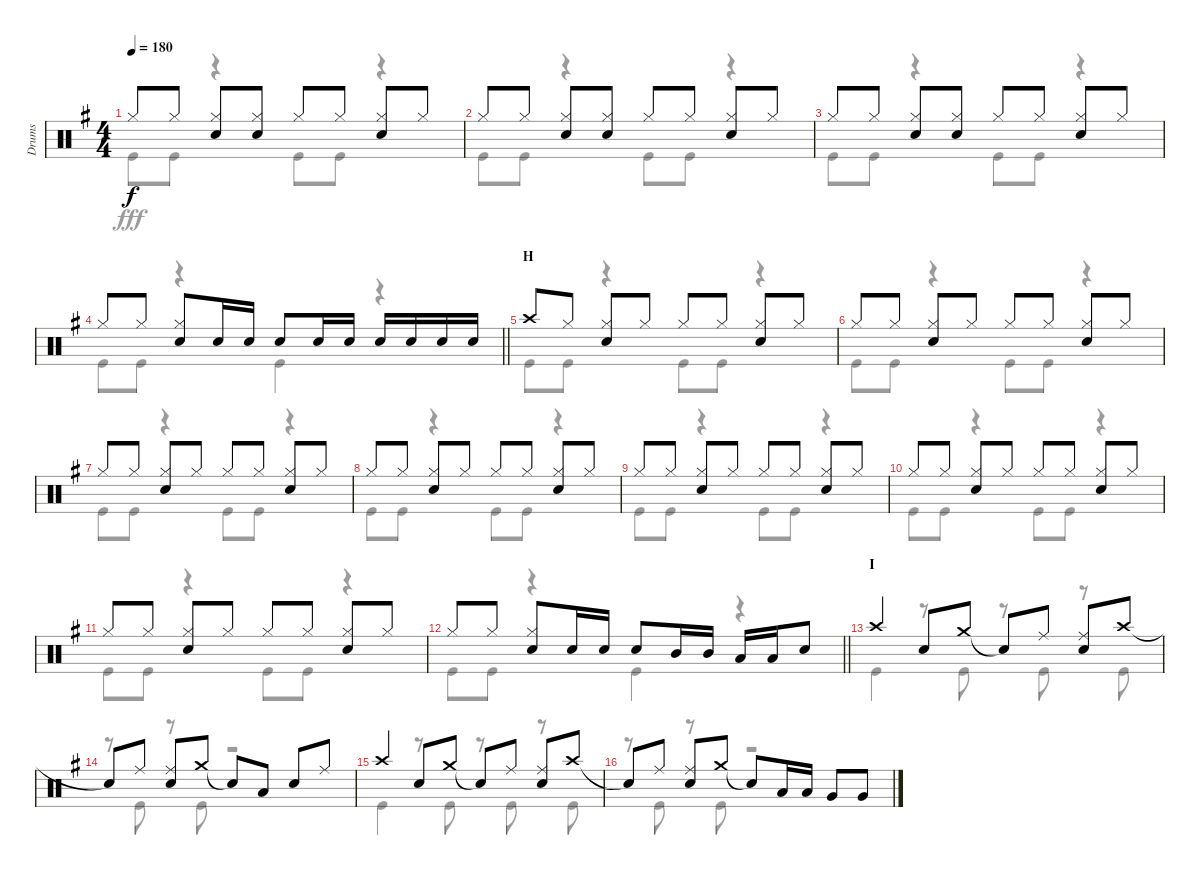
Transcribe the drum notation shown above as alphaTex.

\track ("Drums" "Drums") {instrument percussion}
\staff {score}
\articulation defaults
\voice
\ts (4 4)
\tempo 180
\clef neutral
\ks g "Hi-Hat (closed)".8{dy f} "Hi-Hat (closed)".8
("Hi-Hat (closed)" "Snare (hit) 2").8 ("Hi-Hat (closed)" "Snare (hit) 2").8 "Hi-Hat (closed)".8 "Hi-Hat (closed)".8 ("Hi-Hat (closed)" "Snare (hit) 2").8 "Hi-Hat (closed)".8 |
"Hi-Hat (closed)".8 "Hi-Hat (closed)".8 ("Hi-Hat (closed)" "Snare (hit) 2").8 ("Hi-Hat (closed)" "Snare (hit) 2").8 "Hi-Hat (closed)".8 "Hi-Hat (closed)".8 ("Hi-Hat (closed)" "Snare (hit) 2").8 "Hi-Hat (closed)".8 |
"Hi-Hat (closed)".8 "Hi-Hat (closed)".8 ("Hi-Hat (closed)" "Snare (hit) 2").8 ("Hi-Hat (closed)" "Snare (hit) 2").8 "Hi-Hat (closed)".8 "Hi-Hat (closed)".8 ("Hi-Hat (closed)" "Snare (hit) 2").8 "Hi-Hat (closed)".8 |
\barLineRight lightlight "Hi-Hat (closed)".8 "Hi-Hat (closed)".8
("Hi-Hat (closed)" "Snare (hit) 2").8 "Snare (hit) 2".16 "Snare (hit) 2".16 "Snare (hit) 2".8 "Snare (hit) 2".16 "Snare (hit) 2".16 "Snare (hit) 2".16 "Snare (hit) 2".16 "Snare (hit) 2".16 "Snare (hit) 2".16 |
\section ("" "H")
"Crash high (hit)".8 "Hi-Hat (closed)".8 ("Hi-Hat (closed)" "Snare (hit) 2").8 "Hi-Hat (closed)".8 "Hi-Hat (closed)".8 "Hi-Hat (closed)".8 ("Hi-Hat (closed)" "Snare (hit) 2").8 "Hi-Hat (closed)".8 |
"Hi-Hat (closed)".8 "Hi-Hat (closed)".8 ("Hi-Hat (closed)" "Snare (hit) 2").8 "Hi-Hat (closed)".8 "Hi-Hat (closed)".8 "Hi-Hat (closed)".8 ("Hi-Hat (closed)" "Snare (hit) 2").8 "Hi-Hat (closed)".8 |
"Hi-Hat (closed)".8 "Hi-Hat (closed)".8 ("Hi-Hat (closed)" "Snare (hit) 2").8 "Hi-Hat (closed)".8 "Hi-Hat (closed)".8 "Hi-Hat (closed)".8 ("Hi-Hat (closed)" "Snare (hit) 2").8 "Hi-Hat (closed)".8 |
"Hi-Hat (closed)".8 "Hi-Hat (closed)".8 ("Hi-Hat (closed)" "Snare (hit) 2").8 "Hi-Hat (closed)".8 "Hi-Hat (closed)".8 "Hi-Hat (closed)".8 ("Hi-Hat (closed)" "Snare (hit) 2").8 "Hi-Hat (closed)".8 |
"Hi-Hat (closed)".8 "Hi-Hat (closed)".8 ("Hi-Hat (closed)" "Snare (hit) 2").8 "Hi-Hat (closed)".8 "Hi-Hat (closed)".8 "Hi-Hat (closed)".8 ("Hi-Hat (closed)" "Snare (hit) 2").8 "Hi-Hat (closed)".8 |
"Hi-Hat (closed)".8 "Hi-Hat (closed)".8 ("Hi-Hat (closed)" "Snare (hit) 2").8 "Hi-Hat (closed)".8 "Hi-Hat (closed)".8 "Hi-Hat (closed)".8 ("Hi-Hat (closed)" "Snare (hit) 2").8 "Hi-Hat (closed)".8 |
"Hi-Hat (closed)".8 "Hi-Hat (closed)".8 ("Hi-Hat (closed)" "Snare (hit) 2").8 "Hi-Hat (closed)".8 "Hi-Hat (closed)".8 "Hi-Hat (closed)".8 ("Hi-Hat (closed)" "Snare (hit) 2").8 "Hi-Hat (closed)".8 |
\barLineRight lightlight "Hi-Hat (closed)".8 "Hi-Hat (closed)".8
("Hi-Hat (closed)" "Snare (hit) 2").8 "Snare (hit) 2".16 "Snare (hit) 2".16 "Snare (hit) 2".8 "Mid Tom (hit)".16 "Mid Tom (hit)".16 "Low Tom (hit)".16 "Low Tom (hit)".16 "Snare (hit) 2".8 |
\section ("" "I")
"Crash high (hit)".4 "Snare (hit) 2".8 "Crash medium (hit)".8 "Snare (hit)"{t}.8 "Ride (middle)".8 ("Ride (middle)" "Snare (hit) 2").8 "Crash high (hit)".8 |
"Snare (hit)"{t}.8 "Ride (middle)".8 ("Ride (middle)" "Snare (hit) 2").8 "Crash medium (hit)".8 "Snare (hit)"{t}.8 "Low Tom (hit)".8 "Snare (hit) 2".8 "Ride (middle)".8 |
"Crash high (hit)".4 "Snare (hit) 2".8 "Crash medium (hit)".8 "Snare (hit)"{t}.8 "Ride (middle)".8 ("Ride (middle)" "Snare (hit) 2").8 "Crash high (hit)".8 |
"Snare (hit)"{t}.8 "Ride (middle)".8 ("Ride (middle)" "Snare (hit) 2").8 "Crash medium (hit)".8 "Snare (hit)"{t}.8 "Low Tom (hit)".16 "Low Tom (hit)".16 "Very Low Tom (hit)".8 "Very Low Tom (hit)".8
\voice
\clef neutral
\ottava regular
\simile none
\ks g "Kick (hit)".8{dy fff} "Kick (hit)".8
r.4 "Kick (hit)".8 "Kick (hit)".8 r.4 |
"Kick (hit)".8 "Kick (hit)".8 r.4 "Kick (hit)".8 "Kick (hit)".8 r.4 |
"Kick (hit)".8 "Kick (hit)".8 r.4 "Kick (hit)".8 "Kick (hit)".8 r.4 |
\barLineRight lightlight "Kick (hit)".8 "Kick (hit)".8
r.4 "Kick (hit)".4 r.4 |
"Kick (hit)".8 "Kick (hit)".8 r.4 "Kick (hit)".8 "Kick (hit)".8 r.4 |
"Kick (hit)".8 "Kick (hit)".8 r.4 "Kick (hit)".8 "Kick (hit)".8 r.4 |
"Kick (hit)".8 "Kick (hit)".8 r.4 "Kick (hit)".8 "Kick (hit)".8 r.4 |
"Kick (hit)".8 "Kick (hit)".8 r.4 "Kick (hit)".8 "Kick (hit)".8 r.4 |
"Kick (hit)".8 "Kick (hit)".8 r.4 "Kick (hit)".8 "Kick (hit)".8 r.4 |
"Kick (hit)".8 "Kick (hit)".8 r.4 "Kick (hit)".8 "Kick (hit)".8 r.4 |
"Kick (hit)".8 "Kick (hit)".8 r.4 "Kick (hit)".8 "Kick (hit)".8 r.4 |
\barLineRight lightlight "Kick (hit)".8 "Kick (hit)".8
r.4 "Kick (hit)".4 r.4 |
"Kick (hit)".4 r.8 "Kick (hit)".8 r.8 "Kick (hit)".8 r.8 "Kick (hit)".8 |
r.8 "Kick (hit)".8 r.8 "Kick (hit)".8 r.2 |
"Kick (hit)".4 r.8 "Kick (hit)".8 r.8 "Kick (hit)".8 r.8 "Kick (hit)".8 |
r.8 "Kick (hit)".8 r.8 "Kick (hit)".8 r.2
